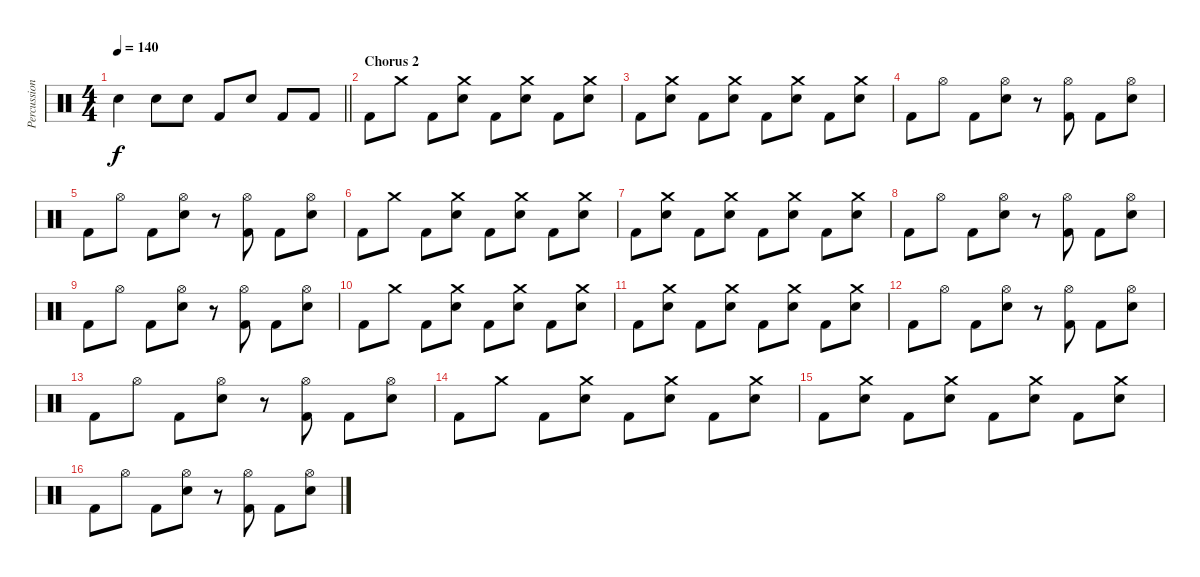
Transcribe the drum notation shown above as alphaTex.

\track ("Percussion" "Percussion") {instrument percussion}
\staff {score}
\articulation defaults
\ts (4 4)
\tempo 140
\clef neutral
\barLineRight lightlight
\ks c "Electric Snare (hit)".4{dy f} "Electric Snare (hit)".8 "Electric Snare (hit)".8 "Kick (hit) 2".8 "Electric Snare (hit)".8 "Kick (hit) 2".8 "Kick (hit) 2".8
|
\section ("" "Chorus 2")
"Kick (hit) 2".8 "Crash medium (hit)".8 "Kick (hit) 2".8 ("Crash medium (hit)" "Electric Snare (hit)").8 "Kick (hit) 2".8 ("Crash medium (hit)" "Electric Snare (hit)").8 "Kick (hit) 2".8 ("Crash medium (hit)" "Electric Snare (hit)").8 |
"Kick (hit) 2".8 ("Crash medium (hit)" "Electric Snare (hit)").8 "Kick (hit) 2".8 ("Crash medium (hit)" "Electric Snare (hit)").8 "Kick (hit) 2".8 ("Crash medium (hit)" "Electric Snare (hit)").8 "Kick (hit) 2".8 ("Crash medium (hit)" "Electric Snare (hit)").8 |
"Kick (hit) 2".8 "Hi-Hat (open)".8 "Kick (hit) 2".8 ("Hi-Hat (open)" "Electric Snare (hit)").8 r.8 ("Hi-Hat (open)" "Kick (hit) 2").8 "Kick (hit) 2".8 ("Hi-Hat (open)" "Electric Snare (hit)").8 |
"Kick (hit) 2".8 "Hi-Hat (open)".8 "Kick (hit) 2".8 ("Hi-Hat (open)" "Electric Snare (hit)").8 r.8 ("Hi-Hat (open)" "Kick (hit) 2").8 "Kick (hit) 2".8 ("Hi-Hat (open)" "Electric Snare (hit)").8 |
"Kick (hit) 2".8 "Crash medium (hit)".8 "Kick (hit) 2".8 ("Crash medium (hit)" "Electric Snare (hit)").8 "Kick (hit) 2".8 ("Crash medium (hit)" "Electric Snare (hit)").8 "Kick (hit) 2".8 ("Crash medium (hit)" "Electric Snare (hit)").8 |
"Kick (hit) 2".8 ("Crash medium (hit)" "Electric Snare (hit)").8 "Kick (hit) 2".8 ("Crash medium (hit)" "Electric Snare (hit)").8 "Kick (hit) 2".8 ("Crash medium (hit)" "Electric Snare (hit)").8 "Kick (hit) 2".8 ("Crash medium (hit)" "Electric Snare (hit)").8 |
"Kick (hit) 2".8 "Hi-Hat (open)".8 "Kick (hit) 2".8 ("Hi-Hat (open)" "Electric Snare (hit)").8 r.8 ("Hi-Hat (open)" "Kick (hit) 2").8 "Kick (hit) 2".8 ("Hi-Hat (open)" "Electric Snare (hit)").8 |
"Kick (hit) 2".8 "Hi-Hat (open)".8 "Kick (hit) 2".8 ("Hi-Hat (open)" "Electric Snare (hit)").8 r.8 ("Hi-Hat (open)" "Kick (hit) 2").8 "Kick (hit) 2".8 ("Hi-Hat (open)" "Electric Snare (hit)").8 |
"Kick (hit) 2".8 "Crash medium (hit)".8 "Kick (hit) 2".8 ("Crash medium (hit)" "Electric Snare (hit)").8 "Kick (hit) 2".8 ("Crash medium (hit)" "Electric Snare (hit)").8 "Kick (hit) 2".8 ("Crash medium (hit)" "Electric Snare (hit)").8 |
"Kick (hit) 2".8 ("Crash medium (hit)" "Electric Snare (hit)").8 "Kick (hit) 2".8 ("Crash medium (hit)" "Electric Snare (hit)").8 "Kick (hit) 2".8 ("Crash medium (hit)" "Electric Snare (hit)").8 "Kick (hit) 2".8 ("Crash medium (hit)" "Electric Snare (hit)").8 |
"Kick (hit) 2".8 "Hi-Hat (open)".8 "Kick (hit) 2".8 ("Hi-Hat (open)" "Electric Snare (hit)").8 r.8 ("Hi-Hat (open)" "Kick (hit) 2").8 "Kick (hit) 2".8 ("Hi-Hat (open)" "Electric Snare (hit)").8 |
"Kick (hit) 2".8 "Hi-Hat (open)".8 "Kick (hit) 2".8 ("Hi-Hat (open)" "Electric Snare (hit)").8 r.8 ("Hi-Hat (open)" "Kick (hit) 2").8 "Kick (hit) 2".8 ("Hi-Hat (open)" "Electric Snare (hit)").8 |
"Kick (hit) 2".8 "Crash medium (hit)".8 "Kick (hit) 2".8 ("Crash medium (hit)" "Electric Snare (hit)").8 "Kick (hit) 2".8 ("Crash medium (hit)" "Electric Snare (hit)").8 "Kick (hit) 2".8 ("Crash medium (hit)" "Electric Snare (hit)").8 |
"Kick (hit) 2".8 ("Crash medium (hit)" "Electric Snare (hit)").8 "Kick (hit) 2".8 ("Crash medium (hit)" "Electric Snare (hit)").8 "Kick (hit) 2".8 ("Crash medium (hit)" "Electric Snare (hit)").8 "Kick (hit) 2".8 ("Crash medium (hit)" "Electric Snare (hit)").8 |
"Kick (hit) 2".8 "Hi-Hat (open)".8 "Kick (hit) 2".8 ("Hi-Hat (open)" "Electric Snare (hit)").8 r.8 ("Hi-Hat (open)" "Kick (hit) 2").8 "Kick (hit) 2".8 ("Hi-Hat (open)" "Electric Snare (hit)").8
